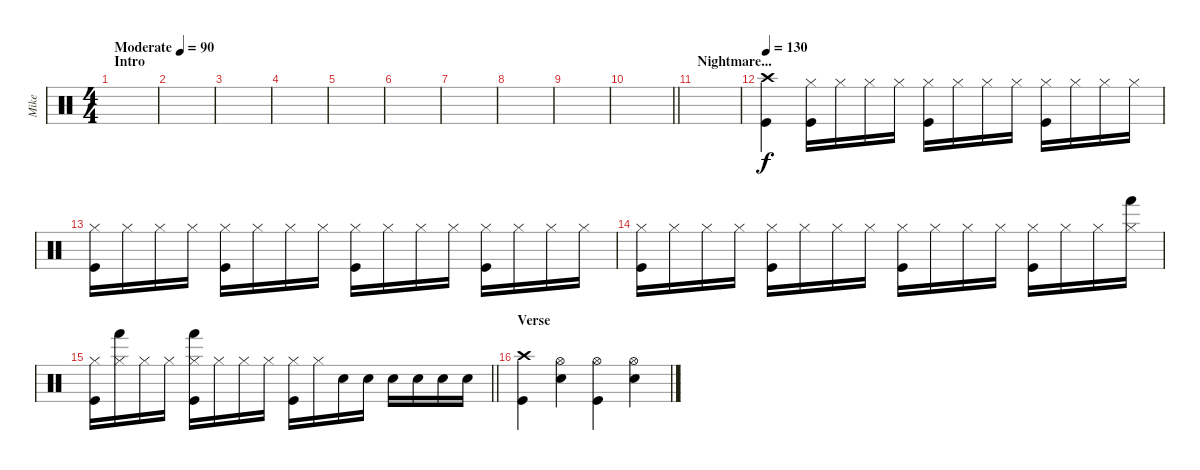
\track ("Mike" "Mike") {instrument percussion}
\staff {score}
\articulation defaults
\ts (4 4)
\section ("" "Intro")
\tempo (90 "Moderate")
\clef neutral
\ks c
|
|
|
|
|
|
|
|
|
\barLineRight lightlight
|
\section ("" "Nightmare...")
|
\tempo 130
("Crash high (hit)" "Kick (hit)").4 ("Hi-Hat (closed)" "Kick (hit)").16 "Hi-Hat (closed)".16 "Hi-Hat (closed)".16 "Hi-Hat (closed)".16 ("Hi-Hat (closed)" "Kick (hit)").16 "Hi-Hat (closed)".16 "Hi-Hat (closed)".16 "Hi-Hat (closed)".16 ("Hi-Hat (closed)" "Kick (hit)").16 "Hi-Hat (closed)".16 "Hi-Hat (closed)".16 "Hi-Hat (closed)".16 |
("Hi-Hat (closed)" "Kick (hit)").16 "Hi-Hat (closed)".16 "Hi-Hat (closed)".16 "Hi-Hat (closed)".16 ("Hi-Hat (closed)" "Kick (hit)").16 "Hi-Hat (closed)".16 "Hi-Hat (closed)".16 "Hi-Hat (closed)".16 ("Hi-Hat (closed)" "Kick (hit)").16 "Hi-Hat (closed)".16 "Hi-Hat (closed)".16 "Hi-Hat (closed)".16 ("Hi-Hat (closed)" "Kick (hit)").16 "Hi-Hat (closed)".16 "Hi-Hat (closed)".16 "Hi-Hat (closed)".16 |
("Hi-Hat (closed)" "Kick (hit)").16 "Hi-Hat (closed)".16 "Hi-Hat (closed)".16 "Hi-Hat (closed)".16 ("Hi-Hat (closed)" "Kick (hit)").16 "Hi-Hat (closed)".16 "Hi-Hat (closed)".16 "Hi-Hat (closed)".16 ("Hi-Hat (closed)" "Kick (hit)").16 "Hi-Hat (closed)".16 "Hi-Hat (closed)".16 "Hi-Hat (closed)".16 ("Hi-Hat (closed)" "Kick (hit)").16 "Hi-Hat (closed)".16 "Hi-Hat (closed)".16 ("Hi-Hat (closed)" "Hand (hit)").16 |
\barLineRight lightlight
("Hi-Hat (closed)" "Kick (hit)").16 ("Hi-Hat (closed)" "Hand (hit)").16 "Hi-Hat (closed)".16 "Hi-Hat (closed)".16 ("Hi-Hat (closed)" "Hand (hit)" "Kick (hit)").16 "Hi-Hat (closed)".16 "Hi-Hat (closed)".16 "Hi-Hat (closed)".16 ("Hi-Hat (closed)" "Kick (hit)").16 "Hi-Hat (closed)".16 "Snare (hit) 2".16 "Snare (hit) 2".16 "Snare (hit) 2".16 "Snare (hit) 2".16 "Snare (hit) 2".16 "Snare (hit) 2".16 |
\section ("" "Verse")
("Crash high (hit)" "Kick (hit)").4 ("Snare (hit) 2" "Hi-Hat (open)").4 ("Hi-Hat (open)" "Kick (hit)").4 ("Snare (hit) 2" "Hi-Hat (open)").4
